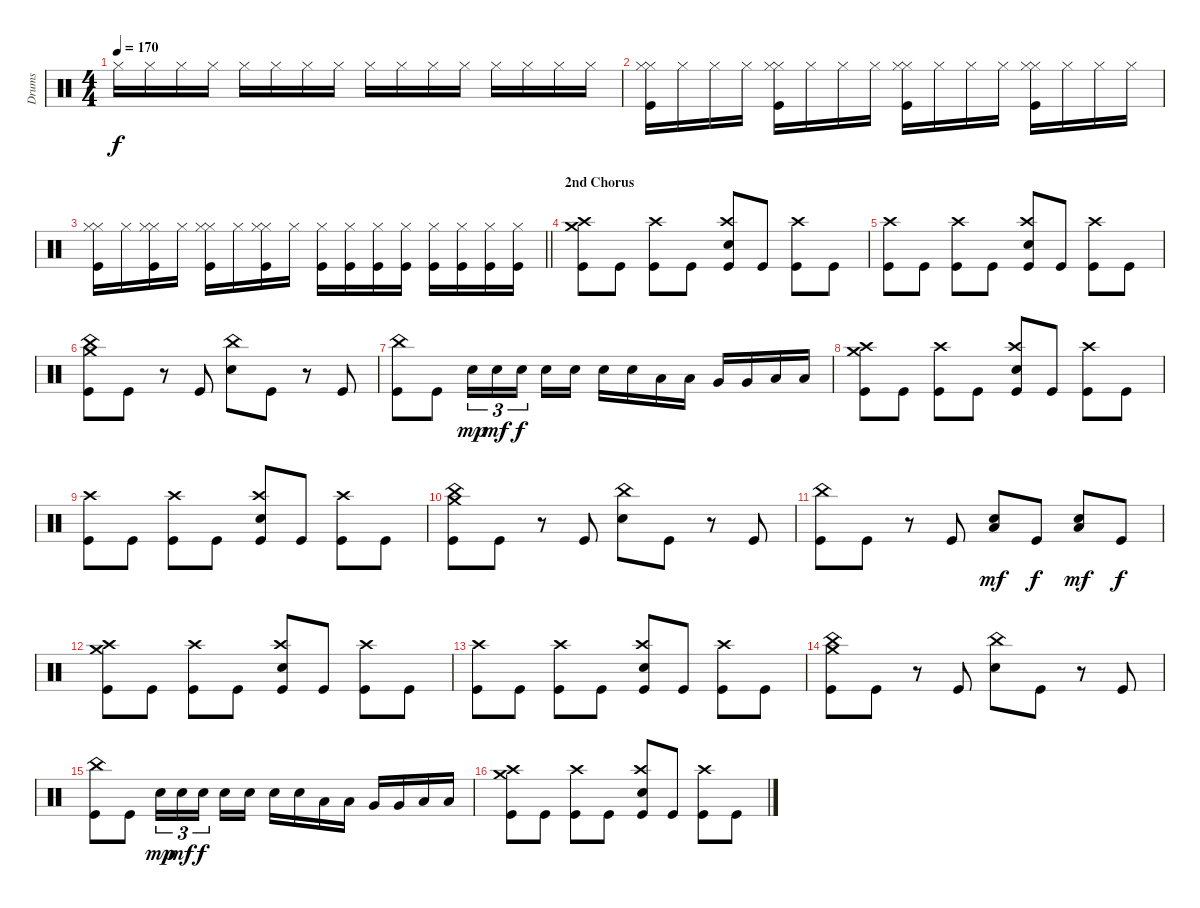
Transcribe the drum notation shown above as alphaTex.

\track ("Drums" "Drums") {instrument percussion}
\staff {score}
\articulation defaults
\ts (4 4)
\tempo 170
\clef neutral
\ks c "Hi-Hat (closed)".16{dy f} "Hi-Hat (closed)".16 "Hi-Hat (closed)".16 "Hi-Hat (closed)".16 "Hi-Hat (closed)".16 "Hi-Hat (closed)".16 "Hi-Hat (closed)".16 "Hi-Hat (closed)".16 "Hi-Hat (closed)".16 "Hi-Hat (closed)".16 "Hi-Hat (closed)".16 "Hi-Hat (closed)".16 "Hi-Hat (closed)".16 "Hi-Hat (closed)".16 "Hi-Hat (closed)".16 "Hi-Hat (closed)".16
|
("Kick (hit)" "Hi-Hat (closed)" "Hi-Hat (closed)").16 "Hi-Hat (closed)".16 "Hi-Hat (closed)".16 "Hi-Hat (closed)".16 ("Kick (hit)" "Hi-Hat (closed)" "Hi-Hat (closed)").16 "Hi-Hat (closed)".16 "Hi-Hat (closed)".16 "Hi-Hat (closed)".16 ("Kick (hit)" "Hi-Hat (closed)" "Hi-Hat (closed)").16 "Hi-Hat (closed)".16 "Hi-Hat (closed)".16 "Hi-Hat (closed)".16 ("Kick (hit)" "Hi-Hat (closed)" "Hi-Hat (closed)").16 "Hi-Hat (closed)".16 "Hi-Hat (closed)".16 "Hi-Hat (closed)".16 |
\barLineRight lightlight
("Kick (hit)" "Hi-Hat (closed)" "Hi-Hat (closed)").16 "Hi-Hat (closed)".16 ("Kick (hit)" "Hi-Hat (closed)" "Hi-Hat (closed)").16 "Hi-Hat (closed)".16 ("Kick (hit)" "Hi-Hat (closed)" "Hi-Hat (closed)").16 "Hi-Hat (closed)".16 ("Kick (hit)" "Hi-Hat (closed)" "Hi-Hat (closed)").16 "Hi-Hat (closed)".16 ("Kick (hit)" "Hi-Hat (closed)").16 ("Kick (hit)" "Hi-Hat (closed)").16 ("Kick (hit)" "Hi-Hat (closed)").16 ("Kick (hit)" "Hi-Hat (closed)").16 ("Kick (hit)" "Hi-Hat (closed)").16 ("Kick (hit)" "Hi-Hat (closed)").16 ("Kick (hit)" "Hi-Hat (closed)").16 ("Kick (hit)" "Hi-Hat (closed)").16 |
\section ("" "2nd Chorus")
("Kick (hit)" "Crash high (hit)" "Crash medium (hit)").8 "Kick (hit)".8 ("Kick (hit)" "Crash high (hit)").8 "Kick (hit)".8 ("Kick (hit)" "Snare (hit) 2" "Crash high (hit)").8 "Kick (hit)".8 ("Kick (hit)" "Crash high (hit)").8 "Kick (hit)".8 |
("Kick (hit)" "Crash high (hit)").8 "Kick (hit)".8 ("Kick (hit)" "Crash high (hit)").8 "Kick (hit)".8 ("Kick (hit)" "Snare (hit) 2" "Crash high (hit)").8 "Kick (hit)".8 ("Kick (hit)" "Crash high (hit)").8 "Kick (hit)".8 |
("Kick (hit)" "China (hit)" "Crash medium (hit)").8 "Kick (hit)".8 r.8 "Kick (hit)".8 ("Snare (hit) 2" "China (hit)").8 "Kick (hit)".8 r.8 "Kick (hit)".8 |
("Kick (hit)" "China (hit)").8 "Kick (hit)".8 "Snare (hit) 2".16{tu (3 2) dy mp} "Snare (hit) 2".16{tu (3 2) dy mf} "Snare (hit) 2".16{tu (3 2) dy f beam splitsecondary} "Snare (hit) 2".16 "Snare (hit) 2".16 "Snare (hit) 2".16 "Snare (hit) 2".16 "Low Tom (hit)".16 "Low Tom (hit)".16 "Very Low Tom (hit)".16 "Very Low Tom (hit)".16 "Low Floor Tom (hit)".16 "Low Floor Tom (hit)".16 |
("Kick (hit)" "Crash high (hit)" "Crash medium (hit)").8 "Kick (hit)".8 ("Kick (hit)" "Crash high (hit)").8 "Kick (hit)".8 ("Kick (hit)" "Snare (hit) 2" "Crash high (hit)").8 "Kick (hit)".8 ("Kick (hit)" "Crash high (hit)").8 "Kick (hit)".8 |
("Kick (hit)" "Crash high (hit)").8 "Kick (hit)".8 ("Kick (hit)" "Crash high (hit)").8 "Kick (hit)".8 ("Kick (hit)" "Snare (hit) 2" "Crash high (hit)").8 "Kick (hit)".8 ("Kick (hit)" "Crash high (hit)").8 "Kick (hit)".8 |
("Kick (hit)" "China (hit)" "Crash medium (hit)").8 "Kick (hit)".8 r.8 "Kick (hit)".8 ("Snare (hit) 2" "China (hit)").8 "Kick (hit)".8 r.8 "Kick (hit)".8 |
("Kick (hit)" "China (hit)").8 "Kick (hit)".8 r.8 "Kick (hit)".8 ("Snare (hit) 2" "Low Tom (hit)").8{dy mf} "Kick (hit)".8{dy f} ("Snare (hit) 2" "Low Tom (hit)").8{dy mf} "Kick (hit)".8{dy f} |
("Kick (hit)" "Crash high (hit)" "Crash medium (hit)").8 "Kick (hit)".8 ("Kick (hit)" "Crash high (hit)").8 "Kick (hit)".8 ("Kick (hit)" "Snare (hit) 2" "Crash high (hit)").8 "Kick (hit)".8 ("Kick (hit)" "Crash high (hit)").8 "Kick (hit)".8 |
("Kick (hit)" "Crash high (hit)").8 "Kick (hit)".8 ("Kick (hit)" "Crash high (hit)").8 "Kick (hit)".8 ("Kick (hit)" "Snare (hit) 2" "Crash high (hit)").8 "Kick (hit)".8 ("Kick (hit)" "Crash high (hit)").8 "Kick (hit)".8 |
("Kick (hit)" "China (hit)" "Crash medium (hit)").8 "Kick (hit)".8 r.8 "Kick (hit)".8 ("Snare (hit) 2" "China (hit)").8 "Kick (hit)".8 r.8 "Kick (hit)".8 |
("Kick (hit)" "China (hit)").8 "Kick (hit)".8 "Snare (hit) 2".16{tu (3 2) dy mp} "Snare (hit) 2".16{tu (3 2) dy mf} "Snare (hit) 2".16{tu (3 2) dy f beam splitsecondary} "Snare (hit) 2".16 "Snare (hit) 2".16 "Snare (hit) 2".16 "Snare (hit) 2".16 "Low Tom (hit)".16 "Low Tom (hit)".16 "Very Low Tom (hit)".16 "Very Low Tom (hit)".16 "Low Floor Tom (hit)".16 "Low Floor Tom (hit)".16 |
("Kick (hit)" "Crash high (hit)" "Crash medium (hit)").8 "Kick (hit)".8 ("Kick (hit)" "Crash high (hit)").8 "Kick (hit)".8 ("Kick (hit)" "Snare (hit) 2" "Crash high (hit)").8 "Kick (hit)".8 ("Kick (hit)" "Crash high (hit)").8 "Kick (hit)".8
